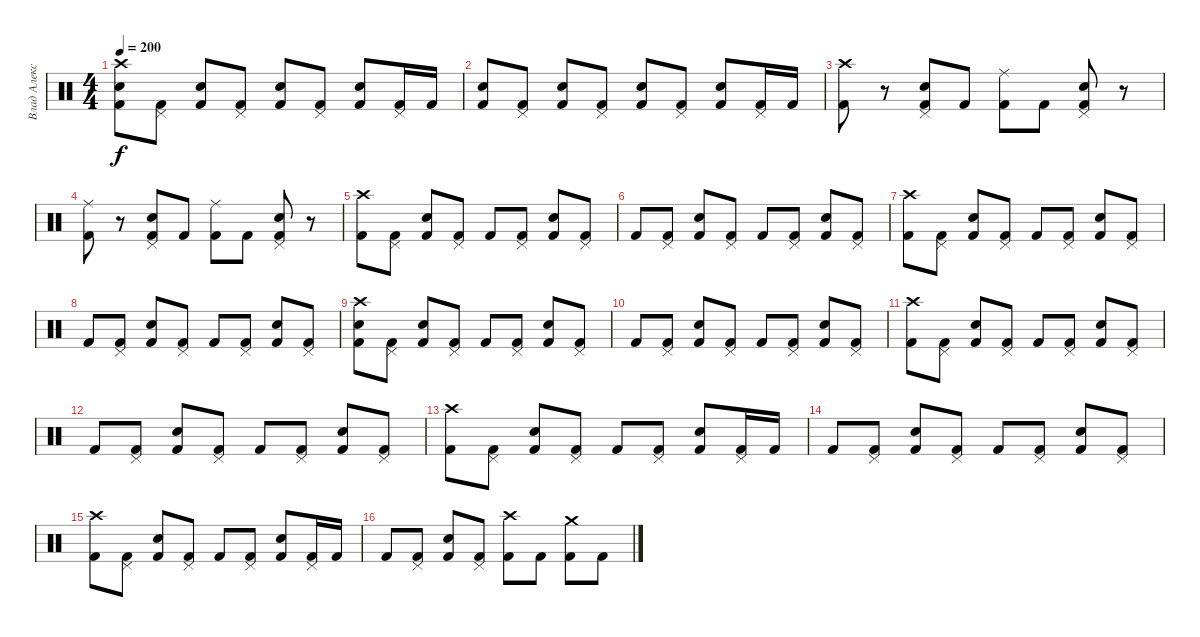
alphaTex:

\track ("Влад Алексеенко" "Влад Алекс") {instrument percussion}
\staff {score}
\articulation defaults
\ts (4 4)
\tempo 200
\clef neutral
\ks c
("Crash high (hit)" "Electric Snare (hit)" "Kick (hit) 2").8{dy f} ("Pedal Hi-Hat (hit)" "Kick (hit) 2").8 ("Electric Snare (hit)" "Kick (hit) 2").8 ("Pedal Hi-Hat (hit)" "Kick (hit) 2").8 ("Electric Snare (hit)" "Kick (hit) 2").8 ("Pedal Hi-Hat (hit)" "Kick (hit) 2").8 ("Electric Snare (hit)" "Kick (hit) 2").8 ("Pedal Hi-Hat (hit)" "Kick (hit) 2").16 "Kick (hit) 2".16 |
("Electric Snare (hit)" "Kick (hit) 2").8 ("Pedal Hi-Hat (hit)" "Kick (hit) 2").8 ("Electric Snare (hit)" "Kick (hit) 2").8 ("Pedal Hi-Hat (hit)" "Kick (hit) 2").8 ("Electric Snare (hit)" "Kick (hit) 2").8 ("Pedal Hi-Hat (hit)" "Kick (hit) 2").8 ("Electric Snare (hit)" "Kick (hit) 2").8 ("Pedal Hi-Hat (hit)" "Kick (hit) 2").16 "Kick (hit) 2".16 |
("Crash high (hit)" "Kick (hit) 2").8 r.8 ("Pedal Hi-Hat (hit)" "Electric Snare (hit)" "Kick (hit) 2").8 "Kick (hit) 2".8 ("Ride (middle)" "Kick (hit) 2").8 "Kick (hit) 2".8 ("Pedal Hi-Hat (hit)" "Electric Snare (hit)" "Kick (hit) 2").8 r.8 |
("Ride (middle)" "Kick (hit) 2").8 r.8 ("Pedal Hi-Hat (hit)" "Electric Snare (hit)" "Kick (hit) 2").8 "Kick (hit) 2".8 ("Ride (middle)" "Kick (hit) 2").8 "Kick (hit) 2".8 ("Pedal Hi-Hat (hit)" "Electric Snare (hit)" "Kick (hit) 2").8 r.8 |
("Crash high (hit)" "Kick (hit) 2").8 ("Pedal Hi-Hat (hit)" "Kick (hit) 2").8 ("Electric Snare (hit)" "Kick (hit) 2").8 ("Pedal Hi-Hat (hit)" "Kick (hit) 2").8 "Kick (hit) 2".8 ("Pedal Hi-Hat (hit)" "Kick (hit) 2").8 ("Electric Snare (hit)" "Kick (hit) 2").8 ("Pedal Hi-Hat (hit)" "Kick (hit) 2").8 |
"Kick (hit) 2".8 ("Pedal Hi-Hat (hit)" "Kick (hit) 2").8 ("Electric Snare (hit)" "Kick (hit) 2").8 ("Pedal Hi-Hat (hit)" "Kick (hit) 2").8 "Kick (hit) 2".8 ("Pedal Hi-Hat (hit)" "Kick (hit) 2").8 ("Electric Snare (hit)" "Kick (hit) 2").8 ("Pedal Hi-Hat (hit)" "Kick (hit) 2").8 |
("Crash high (hit)" "Kick (hit) 2").8 ("Pedal Hi-Hat (hit)" "Kick (hit) 2").8 ("Electric Snare (hit)" "Kick (hit) 2").8 ("Pedal Hi-Hat (hit)" "Kick (hit) 2").8 "Kick (hit) 2".8 ("Pedal Hi-Hat (hit)" "Kick (hit) 2").8 ("Electric Snare (hit)" "Kick (hit) 2").8 ("Pedal Hi-Hat (hit)" "Kick (hit) 2").8 |
"Kick (hit) 2".8 ("Pedal Hi-Hat (hit)" "Kick (hit) 2").8 ("Electric Snare (hit)" "Kick (hit) 2").8 ("Pedal Hi-Hat (hit)" "Kick (hit) 2").8 "Kick (hit) 2".8 ("Pedal Hi-Hat (hit)" "Kick (hit) 2").8 ("Electric Snare (hit)" "Kick (hit) 2").8 ("Pedal Hi-Hat (hit)" "Kick (hit) 2").8 |
("Crash high (hit)" "Electric Snare (hit)" "Kick (hit) 2").8 ("Pedal Hi-Hat (hit)" "Kick (hit) 2").8 ("Electric Snare (hit)" "Kick (hit) 2").8 ("Pedal Hi-Hat (hit)" "Kick (hit) 2").8 "Kick (hit) 2".8 ("Pedal Hi-Hat (hit)" "Kick (hit) 2").8 ("Electric Snare (hit)" "Kick (hit) 2").8 ("Pedal Hi-Hat (hit)" "Kick (hit) 2").8 |
"Kick (hit) 2".8 ("Pedal Hi-Hat (hit)" "Kick (hit) 2").8 ("Electric Snare (hit)" "Kick (hit) 2").8 ("Pedal Hi-Hat (hit)" "Kick (hit) 2").8 "Kick (hit) 2".8 ("Pedal Hi-Hat (hit)" "Kick (hit) 2").8 ("Electric Snare (hit)" "Kick (hit) 2").8 ("Pedal Hi-Hat (hit)" "Kick (hit) 2").8 |
("Crash high (hit)" "Kick (hit) 2").8 ("Pedal Hi-Hat (hit)" "Kick (hit) 2").8 ("Electric Snare (hit)" "Kick (hit) 2").8 ("Pedal Hi-Hat (hit)" "Kick (hit) 2").8 "Kick (hit) 2".8 ("Pedal Hi-Hat (hit)" "Kick (hit) 2").8 ("Electric Snare (hit)" "Kick (hit) 2").8 ("Pedal Hi-Hat (hit)" "Kick (hit) 2").8 |
"Kick (hit) 2".8 ("Pedal Hi-Hat (hit)" "Kick (hit) 2").8 ("Electric Snare (hit)" "Kick (hit) 2").8 ("Pedal Hi-Hat (hit)" "Kick (hit) 2").8 "Kick (hit) 2".8 ("Pedal Hi-Hat (hit)" "Kick (hit) 2").8 ("Electric Snare (hit)" "Kick (hit) 2").8 ("Pedal Hi-Hat (hit)" "Kick (hit) 2").8 |
("Crash high (hit)" "Kick (hit) 2").8 ("Pedal Hi-Hat (hit)" "Kick (hit) 2").8 ("Electric Snare (hit)" "Kick (hit) 2").8 ("Pedal Hi-Hat (hit)" "Kick (hit) 2").8 "Kick (hit) 2".8 ("Pedal Hi-Hat (hit)" "Kick (hit) 2").8 ("Electric Snare (hit)" "Kick (hit) 2").8 ("Pedal Hi-Hat (hit)" "Kick (hit) 2").16 "Kick (hit) 2".16 |
"Kick (hit) 2".8 ("Pedal Hi-Hat (hit)" "Kick (hit) 2").8 ("Electric Snare (hit)" "Kick (hit) 2").8 ("Pedal Hi-Hat (hit)" "Kick (hit) 2").8 "Kick (hit) 2".8 ("Pedal Hi-Hat (hit)" "Kick (hit) 2").8 ("Electric Snare (hit)" "Kick (hit) 2").8 ("Pedal Hi-Hat (hit)" "Kick (hit) 2").8 |
("Crash high (hit)" "Kick (hit) 2").8 ("Pedal Hi-Hat (hit)" "Kick (hit) 2").8 ("Electric Snare (hit)" "Kick (hit) 2").8 ("Pedal Hi-Hat (hit)" "Kick (hit) 2").8 "Kick (hit) 2".8 ("Pedal Hi-Hat (hit)" "Kick (hit) 2").8 ("Electric Snare (hit)" "Kick (hit) 2").8 ("Pedal Hi-Hat (hit)" "Kick (hit) 2").16 "Kick (hit) 2".16 |
"Kick (hit) 2".8 ("Pedal Hi-Hat (hit)" "Kick (hit) 2").8 ("Electric Snare (hit)" "Kick (hit) 2").8 ("Pedal Hi-Hat (hit)" "Kick (hit) 2").8 ("Crash high (hit)" "Kick (hit) 2").8 "Kick (hit) 2".8 ("Crash medium (hit)" "Kick (hit) 2").8 "Kick (hit) 2".8
